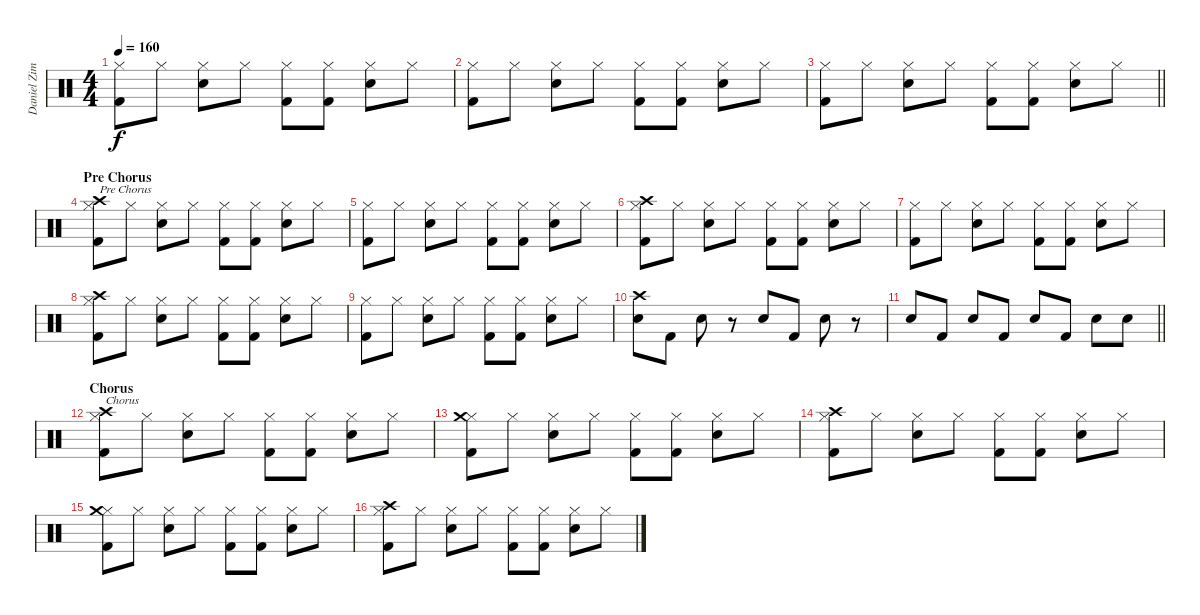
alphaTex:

\track ("Daniel Zimmermann" "Daniel Zim") {instrument percussion}
\staff {score}
\articulation defaults
\ts (4 4)
\tempo 160
\clef neutral
\ks c
("Hi-Hat (closed)" "Kick (hit) 2").8{dy f} "Hi-Hat (closed)".8 ("Hi-Hat (closed)" "Snare (hit) 2").8 "Hi-Hat (closed)".8 ("Hi-Hat (closed)" "Kick (hit) 2").8 ("Hi-Hat (closed)" "Kick (hit) 2").8 ("Hi-Hat (closed)" "Snare (hit) 2").8 "Hi-Hat (closed)".8 |
("Hi-Hat (closed)" "Kick (hit) 2").8 "Hi-Hat (closed)".8 ("Hi-Hat (closed)" "Snare (hit) 2").8 "Hi-Hat (closed)".8 ("Hi-Hat (closed)" "Kick (hit) 2").8 ("Hi-Hat (closed)" "Kick (hit) 2").8 ("Hi-Hat (closed)" "Snare (hit) 2").8 "Hi-Hat (closed)".8 |
\barLineRight lightlight
("Hi-Hat (closed)" "Kick (hit) 2").8 "Hi-Hat (closed)".8 ("Hi-Hat (closed)" "Snare (hit) 2").8 "Hi-Hat (closed)".8 ("Hi-Hat (closed)" "Kick (hit) 2").8 ("Hi-Hat (closed)" "Kick (hit) 2").8 ("Hi-Hat (closed)" "Snare (hit) 2").8 "Hi-Hat (closed)".8 |
\section ("" "Pre Chorus")
("Hi-Hat (closed)" "Kick (hit) 2" "Crash high (hit)").8{txt "Pre Chorus"} "Hi-Hat (closed)".8 ("Hi-Hat (closed)" "Snare (hit) 2").8 "Hi-Hat (closed)".8 ("Hi-Hat (closed)" "Kick (hit) 2").8 ("Hi-Hat (closed)" "Kick (hit) 2").8 ("Hi-Hat (closed)" "Snare (hit) 2").8 "Hi-Hat (closed)".8 |
("Hi-Hat (closed)" "Kick (hit) 2").8 "Hi-Hat (closed)".8 ("Hi-Hat (closed)" "Snare (hit) 2").8 "Hi-Hat (closed)".8 ("Hi-Hat (closed)" "Kick (hit) 2").8 ("Hi-Hat (closed)" "Kick (hit) 2").8 ("Hi-Hat (closed)" "Snare (hit) 2").8 "Hi-Hat (closed)".8 |
("Hi-Hat (closed)" "Kick (hit) 2" "Crash high (hit)").8 "Hi-Hat (closed)".8 ("Hi-Hat (closed)" "Snare (hit) 2").8 "Hi-Hat (closed)".8 ("Hi-Hat (closed)" "Kick (hit) 2").8 ("Hi-Hat (closed)" "Kick (hit) 2").8 ("Hi-Hat (closed)" "Snare (hit) 2").8 "Hi-Hat (closed)".8 |
("Hi-Hat (closed)" "Kick (hit) 2").8 "Hi-Hat (closed)".8 ("Hi-Hat (closed)" "Snare (hit) 2").8 "Hi-Hat (closed)".8 ("Hi-Hat (closed)" "Kick (hit) 2").8 ("Hi-Hat (closed)" "Kick (hit) 2").8 ("Hi-Hat (closed)" "Snare (hit) 2").8 "Hi-Hat (closed)".8 |
("Hi-Hat (closed)" "Kick (hit) 2" "Crash high (hit)").8 "Hi-Hat (closed)".8 ("Hi-Hat (closed)" "Snare (hit) 2").8 "Hi-Hat (closed)".8 ("Hi-Hat (closed)" "Kick (hit) 2").8 ("Hi-Hat (closed)" "Kick (hit) 2").8 ("Hi-Hat (closed)" "Snare (hit) 2").8 "Hi-Hat (closed)".8 |
("Hi-Hat (closed)" "Kick (hit) 2").8 "Hi-Hat (closed)".8 ("Hi-Hat (closed)" "Snare (hit) 2").8 "Hi-Hat (closed)".8 ("Hi-Hat (closed)" "Kick (hit) 2").8 ("Hi-Hat (closed)" "Kick (hit) 2").8 ("Hi-Hat (closed)" "Snare (hit) 2").8 "Hi-Hat (closed)".8 |
("Snare (hit) 2" "Crash high (hit)").8 "Kick (hit) 2".8 "Snare (hit) 2".8 r.8 "Snare (hit) 2".8 "Kick (hit) 2".8 "Snare (hit) 2".8 r.8 |
\barLineRight lightlight "Snare (hit) 2".8 "Kick (hit) 2".8 "Snare (hit) 2".8 "Kick (hit) 2".8 "Snare (hit) 2".8 "Kick (hit) 2".8 "Snare (hit) 2".8 "Snare (hit) 2".8
|
\section ("" "Chorus")
("Hi-Hat (closed)" "Kick (hit) 2" "Crash high (hit)").8{txt "Chorus"} "Hi-Hat (closed)".8 ("Hi-Hat (closed)" "Snare (hit) 2").8 "Hi-Hat (closed)".8 ("Hi-Hat (closed)" "Kick (hit) 2").8 ("Hi-Hat (closed)" "Kick (hit) 2").8 ("Hi-Hat (closed)" "Snare (hit) 2").8 "Hi-Hat (closed)".8 |
("Hi-Hat (closed)" "Kick (hit) 2" "Crash medium (hit)").8 "Hi-Hat (closed)".8 ("Hi-Hat (closed)" "Snare (hit) 2").8 "Hi-Hat (closed)".8 ("Hi-Hat (closed)" "Kick (hit) 2").8 ("Hi-Hat (closed)" "Kick (hit) 2").8 ("Hi-Hat (closed)" "Snare (hit) 2").8 "Hi-Hat (closed)".8 |
("Hi-Hat (closed)" "Kick (hit) 2" "Crash high (hit)").8 "Hi-Hat (closed)".8 ("Hi-Hat (closed)" "Snare (hit) 2").8 "Hi-Hat (closed)".8 ("Hi-Hat (closed)" "Kick (hit) 2").8 ("Hi-Hat (closed)" "Kick (hit) 2").8 ("Hi-Hat (closed)" "Snare (hit) 2").8 "Hi-Hat (closed)".8 |
("Hi-Hat (closed)" "Kick (hit) 2" "Crash medium (hit)").8 "Hi-Hat (closed)".8 ("Hi-Hat (closed)" "Snare (hit) 2").8 "Hi-Hat (closed)".8 ("Hi-Hat (closed)" "Kick (hit) 2").8 ("Hi-Hat (closed)" "Kick (hit) 2").8 ("Hi-Hat (closed)" "Snare (hit) 2").8 "Hi-Hat (closed)".8 |
("Hi-Hat (closed)" "Kick (hit) 2" "Crash high (hit)").8 "Hi-Hat (closed)".8 ("Hi-Hat (closed)" "Snare (hit) 2").8 "Hi-Hat (closed)".8 ("Hi-Hat (closed)" "Kick (hit) 2").8 ("Hi-Hat (closed)" "Kick (hit) 2").8 ("Hi-Hat (closed)" "Snare (hit) 2").8 "Hi-Hat (closed)".8
